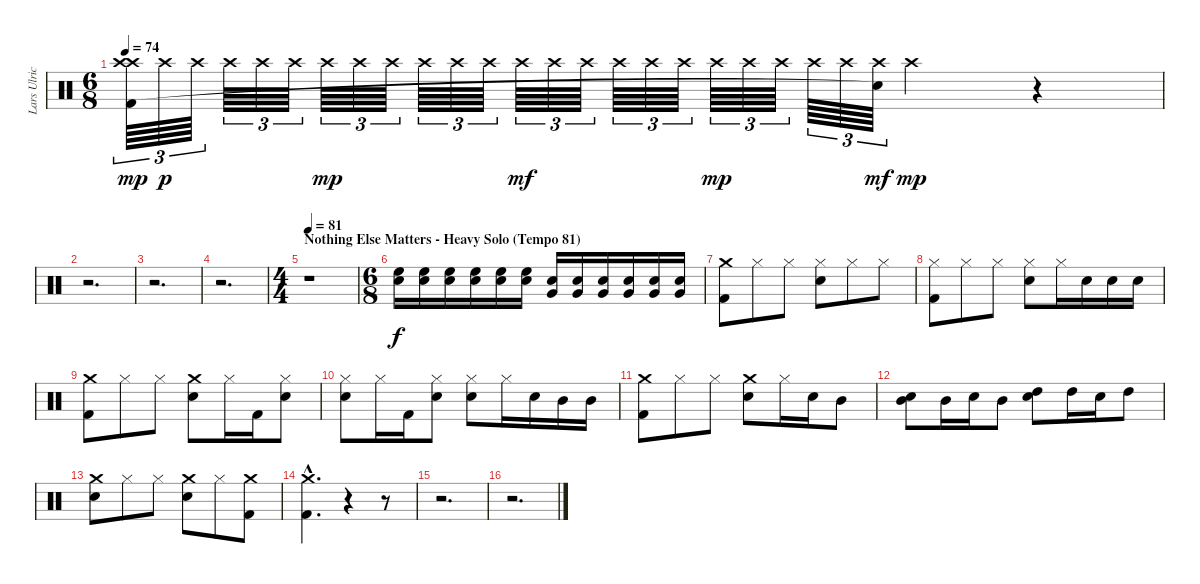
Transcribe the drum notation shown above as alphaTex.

\track ("Lars Ulrich (Drums)" "Lars Ulric") {instrument percussion}
\staff {score}
\articulation defaults
\ts (6 8)
\tempo 74
\clef neutral
\ks c
("Crash high (hit)" "Kick (hit) 2" "Crash high (hit)").64{tu (3 2) dy mp} "Crash high (hit)".64{tu (3 2) dy p} "Crash high (hit)".64{tu (3 2)} "Crash high (hit)".64{tu (3 2)} "Crash high (hit)".64{tu (3 2)} "Crash high (hit)".64{tu (3 2)} "Crash high (hit)".64{tu (3 2) dy mp} "Crash high (hit)".64{tu (3 2)} "Crash high (hit)".64{tu (3 2)} "Crash high (hit)".64{tu (3 2)} "Crash high (hit)".64{tu (3 2)} "Crash high (hit)".64{tu (3 2)} "Crash high (hit)".64{tu (3 2) dy mf} "Crash high (hit)".64{tu (3 2)} "Crash high (hit)".64{tu (3 2)} "Crash high (hit)".64{tu (3 2)} "Crash high (hit)".64{tu (3 2)} "Crash high (hit)".64{tu (3 2)} "Crash high (hit)".64{tu (3 2) dy mp} "Crash high (hit)".64{tu (3 2)} "Crash high (hit)".64{tu (3 2)} "Crash high (hit)".64{tu (3 2)} "Crash high (hit)".64{tu (3 2)} ("Crash high (hit)" "Snare (hit)"{t}).64{tu (3 2) dy mf} "Crash high (hit)".4{dy mp} r.4 |
r.2{d} |
r.2{d} |
r.2{d} |
\ts (4 4)
\section ("" "Nothing Else Matters - Heavy Solo (Tempo 81)")
\tempo 81
r.1 |
\ts (6 8)
("High Floor Tom (hit)" "Snare (hit) 2").16{dy f} ("High Floor Tom (hit)" "Snare (hit) 2").16 ("High Floor Tom (hit)" "Snare (hit) 2").16 ("High Floor Tom (hit)" "Snare (hit) 2").16 ("High Floor Tom (hit)" "Snare (hit) 2").16 ("High Floor Tom (hit)" "Snare (hit) 2").16 ("Very Low Tom (hit)" "Snare (hit) 2").16 ("Very Low Tom (hit)" "Snare (hit) 2").16 ("Very Low Tom (hit)" "Snare (hit) 2").16 ("Very Low Tom (hit)" "Snare (hit) 2").16 ("Very Low Tom (hit)" "Snare (hit) 2").16 ("Very Low Tom (hit)" "Snare (hit) 2").16 |
("Kick (hit) 2" "Crash medium (hit)").8 "Hi-Hat (closed)".8 "Hi-Hat (closed)".8 ("Snare (hit) 2" "Hi-Hat (closed)").8 "Hi-Hat (closed)".8 "Hi-Hat (closed)".8 |
("Kick (hit) 2" "Hi-Hat (closed)").8 "Hi-Hat (closed)".8 "Hi-Hat (closed)".8 ("Snare (hit) 2" "Hi-Hat (closed)").8 "Hi-Hat (closed)".16 "Snare (hit) 2".16 "Snare (hit) 2".16 "Snare (hit) 2".16 |
("Kick (hit) 2" "Crash medium (hit)").8 "Hi-Hat (closed)".8 "Hi-Hat (closed)".8 ("Snare (hit) 2" "Crash medium (hit)").8 "Hi-Hat (closed)".16 "Kick (hit) 2".16 ("Snare (hit) 2" "Hi-Hat (closed)").8 |
("Snare (hit) 2" "Hi-Hat (closed)").8 "Hi-Hat (closed)".16 "Kick (hit) 2".16 ("Snare (hit) 2" "Hi-Hat (closed)").8 ("Snare (hit) 2" "Hi-Hat (closed)").8 "Hi-Hat (closed)".16 "Snare (hit) 2".16 "Mid Tom (hit)".16 "Mid Tom (hit)".16 |
("Kick (hit) 2" "Crash medium (hit)").8 "Hi-Hat (closed)".8 "Hi-Hat (closed)".8 ("Snare (hit) 2" "Crash medium (hit)").8 "Hi-Hat (closed)".16 "Snare (hit) 2".16 "Mid Tom (hit)".8 |
("Mid Tom (hit)" "Snare (hit) 2").8 "Mid Tom (hit)".16 "Snare (hit) 2".16 "Mid Tom (hit)".8 ("High Tom (hit)" "Snare (hit) 2").8 "High Tom (hit)".16 "Snare (hit) 2".16 "High Tom (hit)".8 |
("Snare (hit) 2" "Crash medium (hit)").8 "Hi-Hat (closed)".8 "Hi-Hat (closed)".8 ("Snare (hit) 2" "Crash medium (hit)").8 "Hi-Hat (closed)".8 ("Kick (hit) 2" "Crash medium (hit)").8 |
("Kick (hit) 2"{hac} "Crash medium (hit)"{hac}).4{d} r.4 r.8 |
r.2{d} |
r.2{d}
